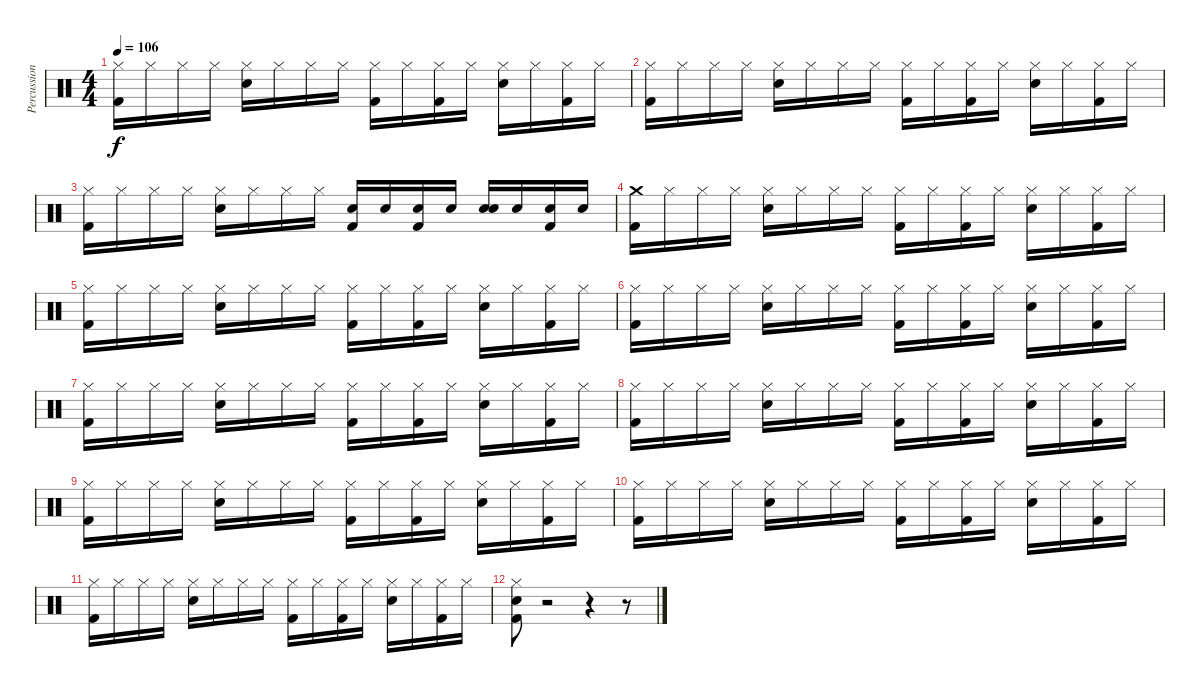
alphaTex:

\track ("Percussion" "Percussion") {instrument percussion}
\staff {score}
\articulation defaults
\ts (4 4)
\tempo 106
\clef neutral
\ks c
("Hi-Hat (closed)" "Kick (hit) 2").16{dy f} "Hi-Hat (closed)".16 "Hi-Hat (closed)".16 "Hi-Hat (closed)".16 ("Hi-Hat (closed)" "Snare (hit) 2").16 "Hi-Hat (closed)".16 "Hi-Hat (closed)".16 "Hi-Hat (closed)".16 ("Hi-Hat (closed)" "Kick (hit) 2").16 "Hi-Hat (closed)".16 ("Hi-Hat (closed)" "Kick (hit) 2").16 "Hi-Hat (closed)".16 ("Hi-Hat (closed)" "Snare (hit) 2").16 "Hi-Hat (closed)".16 ("Hi-Hat (closed)" "Kick (hit) 2").16 "Hi-Hat (closed)".16 |
("Hi-Hat (closed)" "Kick (hit) 2").16 "Hi-Hat (closed)".16 "Hi-Hat (closed)".16 "Hi-Hat (closed)".16 ("Hi-Hat (closed)" "Snare (hit) 2").16 "Hi-Hat (closed)".16 "Hi-Hat (closed)".16 "Hi-Hat (closed)".16 ("Hi-Hat (closed)" "Kick (hit) 2").16 "Hi-Hat (closed)".16 ("Hi-Hat (closed)" "Kick (hit) 2").16 "Hi-Hat (closed)".16 ("Hi-Hat (closed)" "Snare (hit) 2").16 "Hi-Hat (closed)".16 ("Hi-Hat (closed)" "Kick (hit) 2").16 "Hi-Hat (closed)".16 |
("Hi-Hat (closed)" "Kick (hit) 2").16 "Hi-Hat (closed)".16 "Hi-Hat (closed)".16 "Hi-Hat (closed)".16 ("Hi-Hat (closed)" "Snare (hit) 2").16 "Hi-Hat (closed)".16 "Hi-Hat (closed)".16 "Hi-Hat (closed)".16 ("Snare (hit) 2" "Kick (hit) 2").16 "Snare (hit) 2".16 ("Snare (hit) 2" "Kick (hit) 2").16 "Snare (hit) 2".16 ("Snare (hit) 2" "Snare (hit) 2").16 "Snare (hit) 2".16 ("Snare (hit) 2" "Kick (hit) 2").16 "Snare (hit) 2".16 |
("Crash medium (hit)" "Kick (hit) 2").16 "Hi-Hat (closed)".16 "Hi-Hat (closed)".16 "Hi-Hat (closed)".16 ("Hi-Hat (closed)" "Snare (hit) 2").16 "Hi-Hat (closed)".16 "Hi-Hat (closed)".16 "Hi-Hat (closed)".16 ("Hi-Hat (closed)" "Kick (hit) 2").16 "Hi-Hat (closed)".16 ("Hi-Hat (closed)" "Kick (hit) 2").16 "Hi-Hat (closed)".16 ("Hi-Hat (closed)" "Snare (hit) 2").16 "Hi-Hat (closed)".16 ("Hi-Hat (closed)" "Kick (hit) 2").16 "Hi-Hat (closed)".16 |
("Hi-Hat (closed)" "Kick (hit) 2").16 "Hi-Hat (closed)".16 "Hi-Hat (closed)".16 "Hi-Hat (closed)".16 ("Hi-Hat (closed)" "Snare (hit) 2").16 "Hi-Hat (closed)".16 "Hi-Hat (closed)".16 "Hi-Hat (closed)".16 ("Hi-Hat (closed)" "Kick (hit) 2").16 "Hi-Hat (closed)".16 ("Hi-Hat (closed)" "Kick (hit) 2").16 "Hi-Hat (closed)".16 ("Hi-Hat (closed)" "Snare (hit) 2").16 "Hi-Hat (closed)".16 ("Hi-Hat (closed)" "Kick (hit) 2").16 "Hi-Hat (closed)".16 |
("Hi-Hat (closed)" "Kick (hit) 2").16 "Hi-Hat (closed)".16 "Hi-Hat (closed)".16 "Hi-Hat (closed)".16 ("Hi-Hat (closed)" "Snare (hit) 2").16 "Hi-Hat (closed)".16 "Hi-Hat (closed)".16 "Hi-Hat (closed)".16 ("Hi-Hat (closed)" "Kick (hit) 2").16 "Hi-Hat (closed)".16 ("Hi-Hat (closed)" "Kick (hit) 2").16 "Hi-Hat (closed)".16 ("Hi-Hat (closed)" "Snare (hit) 2").16 "Hi-Hat (closed)".16 ("Hi-Hat (closed)" "Kick (hit) 2").16 "Hi-Hat (closed)".16 |
("Hi-Hat (closed)" "Kick (hit) 2").16 "Hi-Hat (closed)".16 "Hi-Hat (closed)".16 "Hi-Hat (closed)".16 ("Hi-Hat (closed)" "Snare (hit) 2").16 "Hi-Hat (closed)".16 "Hi-Hat (closed)".16 "Hi-Hat (closed)".16 ("Hi-Hat (closed)" "Kick (hit) 2").16 "Hi-Hat (closed)".16 ("Hi-Hat (closed)" "Kick (hit) 2").16 "Hi-Hat (closed)".16 ("Hi-Hat (closed)" "Snare (hit) 2").16 "Hi-Hat (closed)".16 ("Hi-Hat (closed)" "Kick (hit) 2").16 "Hi-Hat (closed)".16 |
("Hi-Hat (closed)" "Kick (hit) 2").16 "Hi-Hat (closed)".16 "Hi-Hat (closed)".16 "Hi-Hat (closed)".16 ("Hi-Hat (closed)" "Snare (hit) 2").16 "Hi-Hat (closed)".16 "Hi-Hat (closed)".16 "Hi-Hat (closed)".16 ("Hi-Hat (closed)" "Kick (hit) 2").16 "Hi-Hat (closed)".16 ("Hi-Hat (closed)" "Kick (hit) 2").16 "Hi-Hat (closed)".16 ("Hi-Hat (closed)" "Snare (hit) 2").16 "Hi-Hat (closed)".16 ("Hi-Hat (closed)" "Kick (hit) 2").16 "Hi-Hat (closed)".16 |
("Hi-Hat (closed)" "Kick (hit) 2").16 "Hi-Hat (closed)".16 "Hi-Hat (closed)".16 "Hi-Hat (closed)".16 ("Hi-Hat (closed)" "Snare (hit) 2").16 "Hi-Hat (closed)".16 "Hi-Hat (closed)".16 "Hi-Hat (closed)".16 ("Hi-Hat (closed)" "Kick (hit) 2").16 "Hi-Hat (closed)".16 ("Hi-Hat (closed)" "Kick (hit) 2").16 "Hi-Hat (closed)".16 ("Hi-Hat (closed)" "Snare (hit) 2").16 "Hi-Hat (closed)".16 ("Hi-Hat (closed)" "Kick (hit) 2").16 "Hi-Hat (closed)".16 |
("Hi-Hat (closed)" "Kick (hit) 2").16 "Hi-Hat (closed)".16 "Hi-Hat (closed)".16 "Hi-Hat (closed)".16 ("Hi-Hat (closed)" "Snare (hit) 2").16 "Hi-Hat (closed)".16 "Hi-Hat (closed)".16 "Hi-Hat (closed)".16 ("Hi-Hat (closed)" "Kick (hit) 2").16 "Hi-Hat (closed)".16 ("Hi-Hat (closed)" "Kick (hit) 2").16 "Hi-Hat (closed)".16 ("Hi-Hat (closed)" "Snare (hit) 2").16 "Hi-Hat (closed)".16 ("Hi-Hat (closed)" "Kick (hit) 2").16 "Hi-Hat (closed)".16 |
("Hi-Hat (closed)" "Kick (hit) 2").16 "Hi-Hat (closed)".16 "Hi-Hat (closed)".16 "Hi-Hat (closed)".16 ("Hi-Hat (closed)" "Snare (hit) 2").16 "Hi-Hat (closed)".16 "Hi-Hat (closed)".16 "Hi-Hat (closed)".16 ("Hi-Hat (closed)" "Kick (hit) 2").16 "Hi-Hat (closed)".16 ("Hi-Hat (closed)" "Kick (hit) 2").16 "Hi-Hat (closed)".16 ("Hi-Hat (closed)" "Snare (hit) 2").16 "Hi-Hat (closed)".16 ("Hi-Hat (closed)" "Kick (hit) 2").16 "Hi-Hat (closed)".16 |
("Hi-Hat (closed)" "Snare (hit) 2" "Kick (hit) 2").8 r.2 r.4 r.8
